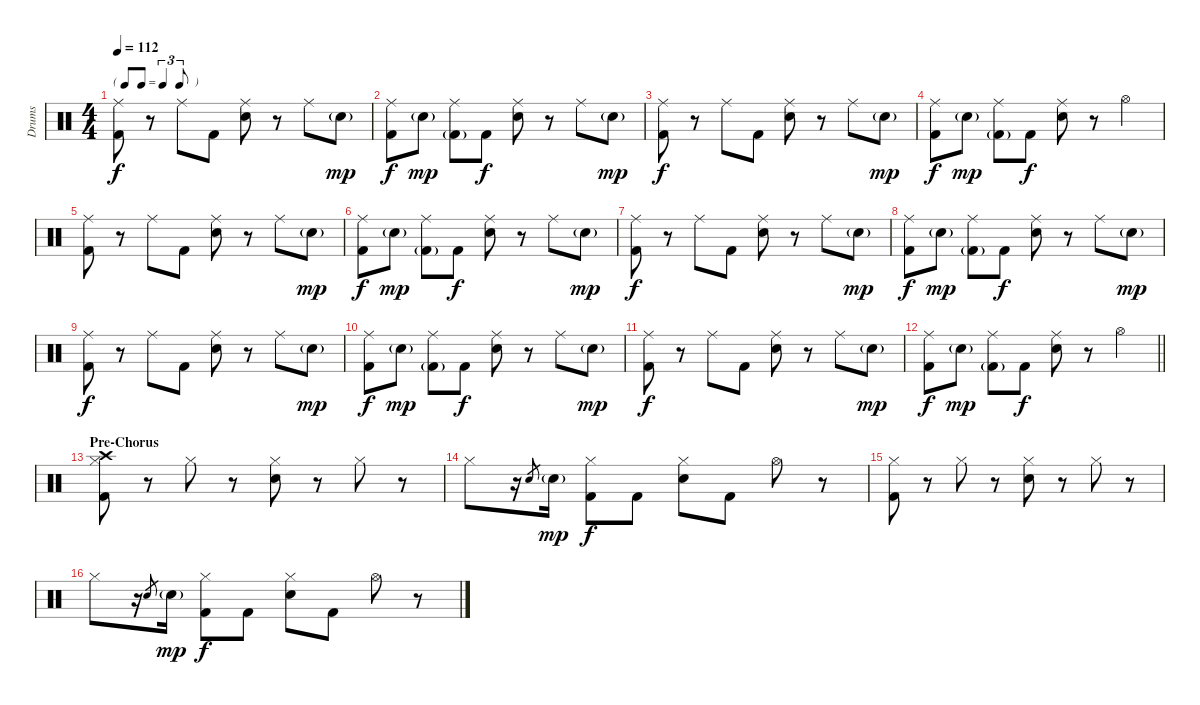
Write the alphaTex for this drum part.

\track ("Drums" "Drums") {instrument percussion}
\staff {score}
\articulation defaults
\ts (4 4)
\tf triplet8th
\tempo 112
\clef neutral
\ks c
("Ride (middle)" "Kick (hit) 2").8{dy f} r.8 "Ride (middle)".8 "Kick (hit) 2".8 ("Ride (middle)" "Snare (hit) 2").8 r.8 "Ride (middle)".8 "Snare (hit) 2"{g}.8{dy mp} |
("Ride (middle)" "Kick (hit) 2").8{dy f} "Snare (hit) 2"{g}.8{dy mp} ("Ride (middle)" "Kick (hit) 2"{g}).8 "Kick (hit) 2".8{dy f} ("Ride (middle)" "Snare (hit) 2").8 r.8 "Ride (middle)".8 "Snare (hit) 2"{g}.8{dy mp} |
("Ride (middle)" "Kick (hit) 2").8{dy f} r.8 "Ride (middle)".8 "Kick (hit) 2".8 ("Ride (middle)" "Snare (hit) 2").8 r.8 "Ride (middle)".8 "Snare (hit) 2"{g}.8{dy mp} |
("Ride (middle)" "Kick (hit) 2").8{dy f} "Snare (hit) 2"{g}.8{dy mp} ("Ride (middle)" "Kick (hit) 2"{g}).8 "Kick (hit) 2".8{dy f} ("Ride (middle)" "Snare (hit) 2").8 r.8 "Hi-Hat (open)".4 |
("Ride (middle)" "Kick (hit) 2").8 r.8 "Ride (middle)".8 "Kick (hit) 2".8 ("Ride (middle)" "Snare (hit) 2").8 r.8 "Ride (middle)".8 "Snare (hit) 2"{g}.8{dy mp} |
("Ride (middle)" "Kick (hit) 2").8{dy f} "Snare (hit) 2"{g}.8{dy mp} ("Ride (middle)" "Kick (hit) 2"{g}).8 "Kick (hit) 2".8{dy f} ("Ride (middle)" "Snare (hit) 2").8 r.8 "Ride (middle)".8 "Snare (hit) 2"{g}.8{dy mp} |
("Ride (middle)" "Kick (hit) 2").8{dy f} r.8 "Ride (middle)".8 "Kick (hit) 2".8 ("Ride (middle)" "Snare (hit) 2").8 r.8 "Ride (middle)".8 "Snare (hit) 2"{g}.8{dy mp} |
("Ride (middle)" "Kick (hit) 2").8{dy f} "Snare (hit) 2"{g}.8{dy mp} ("Ride (middle)" "Kick (hit) 2"{g}).8 "Kick (hit) 2".8{dy f} ("Ride (middle)" "Snare (hit) 2").8 r.8 "Ride (middle)".8 "Snare (hit) 2"{g}.8{dy mp} |
("Ride (middle)" "Kick (hit) 2").8{dy f} r.8 "Ride (middle)".8 "Kick (hit) 2".8 ("Ride (middle)" "Snare (hit) 2").8 r.8 "Ride (middle)".8 "Snare (hit) 2"{g}.8{dy mp} |
("Ride (middle)" "Kick (hit) 2").8{dy f} "Snare (hit) 2"{g}.8{dy mp} ("Ride (middle)" "Kick (hit) 2"{g}).8 "Kick (hit) 2".8{dy f} ("Ride (middle)" "Snare (hit) 2").8 r.8 "Ride (middle)".8 "Snare (hit) 2"{g}.8{dy mp} |
("Ride (middle)" "Kick (hit) 2").8{dy f} r.8 "Ride (middle)".8 "Kick (hit) 2".8 ("Ride (middle)" "Snare (hit) 2").8 r.8 "Ride (middle)".8 "Snare (hit) 2"{g}.8{dy mp} |
\barLineRight lightlight
("Ride (middle)" "Kick (hit) 2").8{dy f} "Snare (hit) 2"{g}.8{dy mp} ("Ride (middle)" "Kick (hit) 2"{g}).8 "Kick (hit) 2".8{dy f} ("Ride (middle)" "Snare (hit) 2").8 r.8 "Hi-Hat (open)".4 |
\section ("" "Pre-Chorus")
("Crash high (hit)" "Hi-Hat (closed)" "Kick (hit) 2").8 r.8 "Hi-Hat (closed)".8 r.8 ("Hi-Hat (closed)" "Snare (hit) 2").8 r.8 "Hi-Hat (closed)".8 r.8 |
"Hi-Hat (closed)".8 r.16 "Snare (hit) 2".8{gr} "Snare (hit) 2"{g}.16{dy mp} ("Hi-Hat (closed)" "Kick (hit) 2").8{dy f} "Kick (hit) 2".8 ("Hi-Hat (closed)" "Snare (hit) 2").8 "Kick (hit) 2".8 "Hi-Hat (open)".8 r.8 |
("Hi-Hat (closed)" "Kick (hit) 2").8 r.8 "Hi-Hat (closed)".8 r.8 ("Hi-Hat (closed)" "Snare (hit) 2").8 r.8 "Hi-Hat (closed)".8 r.8 |
"Hi-Hat (closed)".8 r.16 "Snare (hit) 2".8{gr} "Snare (hit) 2"{g}.16{dy mp} ("Hi-Hat (closed)" "Kick (hit) 2").8{dy f} "Kick (hit) 2".8 ("Hi-Hat (closed)" "Snare (hit) 2").8 "Kick (hit) 2".8 "Hi-Hat (open)".8 r.8
